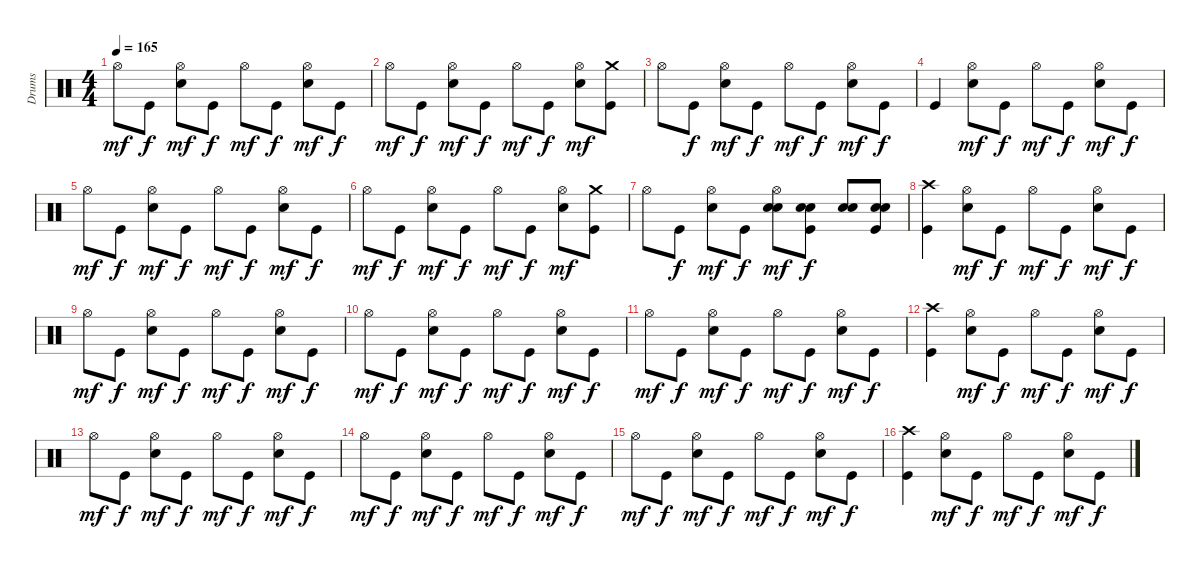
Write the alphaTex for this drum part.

\track ("Drums" "Drums") {instrument percussion}
\staff {score}
\articulation defaults
\ts (4 4)
\tempo 165
\clef neutral
\ks c "Hi-Hat (open)".8{dy mf} "Kick (hit)".8{dy f}
("Electric Snare (hit)" "Hi-Hat (open)").8{dy mf} "Kick (hit)".8{dy f} "Hi-Hat (open)".8{dy mf} "Kick (hit)".8{dy f} ("Electric Snare (hit)" "Hi-Hat (open)").8{dy mf} "Kick (hit)".8{dy f} |
"Hi-Hat (open)".8{dy mf} "Kick (hit)".8{dy f} ("Electric Snare (hit)" "Hi-Hat (open)").8{dy mf} "Kick (hit)".8{dy f} "Hi-Hat (open)".8{dy mf} "Kick (hit)".8{dy f} ("Electric Snare (hit)" "Hi-Hat (open)").8{dy mf} ("Kick (hit)" "Crash medium (hit)").8 |
"Hi-Hat (open)".8 "Kick (hit)".8{dy f} ("Electric Snare (hit)" "Hi-Hat (open)").8{dy mf} "Kick (hit)".8{dy f} "Hi-Hat (open)".8{dy mf} "Kick (hit)".8{dy f} ("Electric Snare (hit)" "Hi-Hat (open)").8{dy mf} "Kick (hit)".8{dy f} |
"Kick (hit)".4 ("Electric Snare (hit)" "Hi-Hat (open)").8{dy mf} "Kick (hit)".8{dy f} "Hi-Hat (open)".8{dy mf} "Kick (hit)".8{dy f} ("Electric Snare (hit)" "Hi-Hat (open)").8{dy mf} "Kick (hit)".8{dy f} |
"Hi-Hat (open)".8{dy mf} "Kick (hit)".8{dy f} ("Electric Snare (hit)" "Hi-Hat (open)").8{dy mf} "Kick (hit)".8{dy f} "Hi-Hat (open)".8{dy mf} "Kick (hit)".8{dy f} ("Electric Snare (hit)" "Hi-Hat (open)").8{dy mf} "Kick (hit)".8{dy f} |
"Hi-Hat (open)".8{dy mf} "Kick (hit)".8{dy f} ("Electric Snare (hit)" "Hi-Hat (open)").8{dy mf} "Kick (hit)".8{dy f} "Hi-Hat (open)".8{dy mf} "Kick (hit)".8{dy f} ("Electric Snare (hit)" "Hi-Hat (open)").8{dy mf} ("Kick (hit)" "Crash medium (hit)").8 |
"Hi-Hat (open)".8 "Kick (hit)".8{dy f} ("Electric Snare (hit)" "Hi-Hat (open)").8{dy mf} "Kick (hit)".8{dy f} ("Electric Snare (hit)" "Electric Snare (hit)" "Hi-Hat (open)").8{dy mf} ("Kick (hit)" "Electric Snare (hit)" "Electric Snare (hit)").8{dy f} ("Electric Snare (hit)" "Electric Snare (hit)").8 ("Kick (hit)" "Electric Snare (hit)" "Electric Snare (hit)").8 |
("Kick (hit)" "Crash high (hit)").4 ("Electric Snare (hit)" "Hi-Hat (open)").8{dy mf} "Kick (hit)".8{dy f} "Hi-Hat (open)".8{dy mf} "Kick (hit)".8{dy f} ("Electric Snare (hit)" "Hi-Hat (open)").8{dy mf} "Kick (hit)".8{dy f} |
"Hi-Hat (open)".8{dy mf} "Kick (hit)".8{dy f} ("Electric Snare (hit)" "Hi-Hat (open)").8{dy mf} "Kick (hit)".8{dy f} "Hi-Hat (open)".8{dy mf} "Kick (hit)".8{dy f} ("Electric Snare (hit)" "Hi-Hat (open)").8{dy mf} "Kick (hit)".8{dy f} |
"Hi-Hat (open)".8{dy mf} "Kick (hit)".8{dy f} ("Electric Snare (hit)" "Hi-Hat (open)").8{dy mf} "Kick (hit)".8{dy f} "Hi-Hat (open)".8{dy mf} "Kick (hit)".8{dy f} ("Electric Snare (hit)" "Hi-Hat (open)").8{dy mf} "Kick (hit)".8{dy f} |
"Hi-Hat (open)".8{dy mf} "Kick (hit)".8{dy f} ("Electric Snare (hit)" "Hi-Hat (open)").8{dy mf} "Kick (hit)".8{dy f} "Hi-Hat (open)".8{dy mf} "Kick (hit)".8{dy f} ("Electric Snare (hit)" "Hi-Hat (open)").8{dy mf} "Kick (hit)".8{dy f} |
("Kick (hit)" "Crash high (hit)").4 ("Electric Snare (hit)" "Hi-Hat (open)").8{dy mf} "Kick (hit)".8{dy f} "Hi-Hat (open)".8{dy mf} "Kick (hit)".8{dy f} ("Electric Snare (hit)" "Hi-Hat (open)").8{dy mf} "Kick (hit)".8{dy f} |
"Hi-Hat (open)".8{dy mf} "Kick (hit)".8{dy f} ("Electric Snare (hit)" "Hi-Hat (open)").8{dy mf} "Kick (hit)".8{dy f} "Hi-Hat (open)".8{dy mf} "Kick (hit)".8{dy f} ("Electric Snare (hit)" "Hi-Hat (open)").8{dy mf} "Kick (hit)".8{dy f} |
"Hi-Hat (open)".8{dy mf} "Kick (hit)".8{dy f} ("Electric Snare (hit)" "Hi-Hat (open)").8{dy mf} "Kick (hit)".8{dy f} "Hi-Hat (open)".8{dy mf} "Kick (hit)".8{dy f} ("Electric Snare (hit)" "Hi-Hat (open)").8{dy mf} "Kick (hit)".8{dy f} |
"Hi-Hat (open)".8{dy mf} "Kick (hit)".8{dy f} ("Electric Snare (hit)" "Hi-Hat (open)").8{dy mf} "Kick (hit)".8{dy f} "Hi-Hat (open)".8{dy mf} "Kick (hit)".8{dy f} ("Electric Snare (hit)" "Hi-Hat (open)").8{dy mf} "Kick (hit)".8{dy f} |
("Kick (hit)" "Crash high (hit)").4 ("Electric Snare (hit)" "Hi-Hat (open)").8{dy mf} "Kick (hit)".8{dy f} "Hi-Hat (open)".8{dy mf} "Kick (hit)".8{dy f} ("Electric Snare (hit)" "Hi-Hat (open)").8{dy mf} "Kick (hit)".8{dy f}
